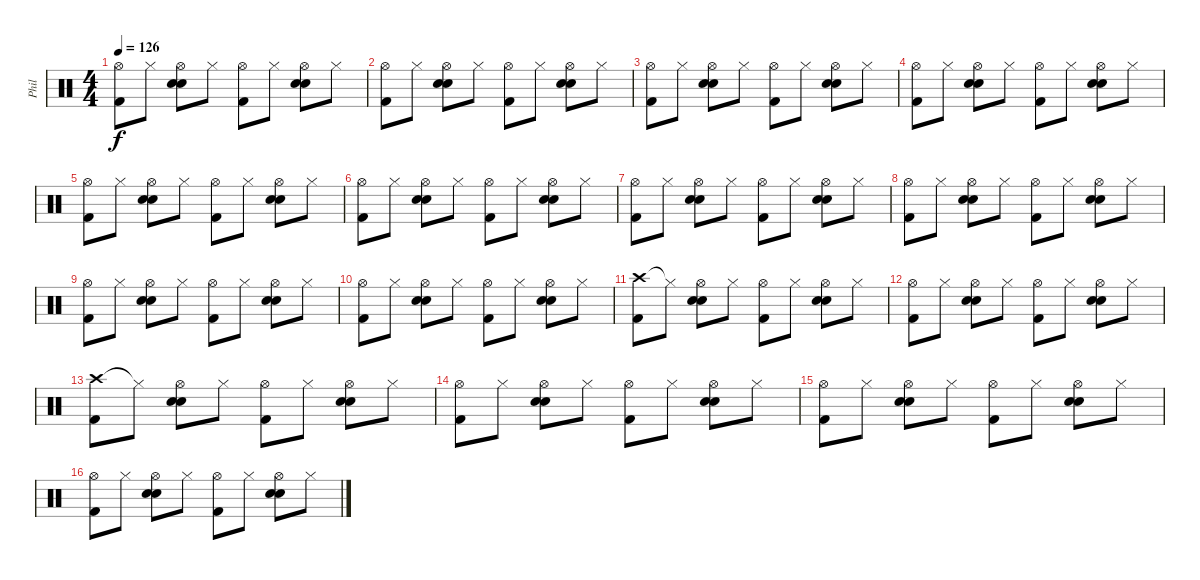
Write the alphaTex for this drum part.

\track ("Phil" "Phil") {instrument percussion}
\staff {score}
\articulation defaults
\ts (4 4)
\tempo 126
\clef neutral
\ks c
("Hi-Hat (open)" "Kick (hit) 2").8{dy f} "Hi-Hat (closed)".8 ("Hi-Hat (open)" "Snare (hit) 2" "Electric Snare (hit)").8 "Hi-Hat (closed)".8 ("Hi-Hat (open)" "Kick (hit) 2").8 "Hi-Hat (closed)".8 ("Hi-Hat (open)" "Snare (hit) 2" "Electric Snare (hit)").8 "Hi-Hat (closed)".8 |
("Hi-Hat (open)" "Kick (hit) 2").8 "Hi-Hat (closed)".8 ("Hi-Hat (open)" "Snare (hit) 2" "Electric Snare (hit)").8 "Hi-Hat (closed)".8 ("Hi-Hat (open)" "Kick (hit) 2").8 "Hi-Hat (closed)".8 ("Hi-Hat (open)" "Snare (hit) 2" "Electric Snare (hit)").8 "Hi-Hat (closed)".8 |
("Hi-Hat (open)" "Kick (hit) 2").8 "Hi-Hat (closed)".8 ("Hi-Hat (open)" "Snare (hit) 2" "Electric Snare (hit)").8 "Hi-Hat (closed)".8 ("Hi-Hat (open)" "Kick (hit) 2").8 "Hi-Hat (closed)".8 ("Hi-Hat (open)" "Snare (hit) 2" "Electric Snare (hit)").8 "Hi-Hat (closed)".8 |
("Hi-Hat (open)" "Kick (hit) 2").8 "Hi-Hat (closed)".8 ("Hi-Hat (open)" "Snare (hit) 2" "Electric Snare (hit)").8 "Hi-Hat (closed)".8 ("Hi-Hat (open)" "Kick (hit) 2").8 "Hi-Hat (closed)".8 ("Hi-Hat (open)" "Snare (hit) 2" "Electric Snare (hit)").8 "Hi-Hat (closed)".8 |
("Hi-Hat (open)" "Kick (hit) 2").8 "Hi-Hat (closed)".8 ("Hi-Hat (open)" "Snare (hit) 2" "Electric Snare (hit)").8 "Hi-Hat (closed)".8 ("Hi-Hat (open)" "Kick (hit) 2").8 "Hi-Hat (closed)".8 ("Hi-Hat (open)" "Snare (hit) 2" "Electric Snare (hit)").8 "Hi-Hat (closed)".8 |
("Hi-Hat (open)" "Kick (hit) 2").8 "Hi-Hat (closed)".8 ("Hi-Hat (open)" "Snare (hit) 2" "Electric Snare (hit)").8 "Hi-Hat (closed)".8 ("Hi-Hat (open)" "Kick (hit) 2").8 "Hi-Hat (closed)".8 ("Hi-Hat (open)" "Snare (hit) 2" "Electric Snare (hit)").8 "Hi-Hat (closed)".8 |
("Hi-Hat (open)" "Kick (hit) 2").8 "Hi-Hat (closed)".8 ("Hi-Hat (open)" "Snare (hit) 2" "Electric Snare (hit)").8 "Hi-Hat (closed)".8 ("Hi-Hat (open)" "Kick (hit) 2").8 "Hi-Hat (closed)".8 ("Hi-Hat (open)" "Snare (hit) 2" "Electric Snare (hit)").8 "Hi-Hat (closed)".8 |
("Hi-Hat (open)" "Kick (hit) 2").8 "Hi-Hat (closed)".8 ("Hi-Hat (open)" "Snare (hit) 2" "Electric Snare (hit)").8 "Hi-Hat (closed)".8 ("Hi-Hat (open)" "Kick (hit) 2").8 "Hi-Hat (closed)".8 ("Hi-Hat (open)" "Snare (hit) 2" "Electric Snare (hit)").8 "Hi-Hat (closed)".8 |
("Hi-Hat (open)" "Kick (hit) 2").8 "Hi-Hat (closed)".8 ("Hi-Hat (open)" "Snare (hit) 2" "Electric Snare (hit)").8 "Hi-Hat (closed)".8 ("Hi-Hat (open)" "Kick (hit) 2").8 "Hi-Hat (closed)".8 ("Hi-Hat (open)" "Snare (hit) 2" "Electric Snare (hit)").8 "Hi-Hat (closed)".8 |
("Hi-Hat (open)" "Kick (hit) 2").8 "Hi-Hat (closed)".8 ("Hi-Hat (open)" "Snare (hit) 2" "Electric Snare (hit)").8 "Hi-Hat (closed)".8 ("Hi-Hat (open)" "Kick (hit) 2").8 "Hi-Hat (closed)".8 ("Hi-Hat (open)" "Snare (hit) 2" "Electric Snare (hit)").8 "Hi-Hat (closed)".8 |
("Crash high (hit)" "Kick (hit) 2").8 "Hi-Hat (closed)"{t}.8 ("Hi-Hat (open)" "Snare (hit) 2" "Electric Snare (hit)").8 "Hi-Hat (closed)".8 ("Hi-Hat (open)" "Kick (hit) 2").8 "Hi-Hat (closed)".8 ("Hi-Hat (open)" "Snare (hit) 2" "Electric Snare (hit)").8 "Hi-Hat (closed)".8 |
("Hi-Hat (open)" "Kick (hit) 2").8 "Hi-Hat (closed)".8 ("Hi-Hat (open)" "Snare (hit) 2" "Electric Snare (hit)").8 "Hi-Hat (closed)".8 ("Hi-Hat (open)" "Kick (hit) 2").8 "Hi-Hat (closed)".8 ("Hi-Hat (open)" "Snare (hit) 2" "Electric Snare (hit)").8 "Hi-Hat (closed)".8 |
("Crash high (hit)" "Kick (hit) 2").8 "Hi-Hat (closed)"{t}.8 ("Hi-Hat (open)" "Snare (hit) 2" "Electric Snare (hit)").8 "Hi-Hat (closed)".8 ("Hi-Hat (open)" "Kick (hit) 2").8 "Hi-Hat (closed)".8 ("Hi-Hat (open)" "Snare (hit) 2" "Electric Snare (hit)").8 "Hi-Hat (closed)".8 |
("Hi-Hat (open)" "Kick (hit) 2").8 "Hi-Hat (closed)".8 ("Hi-Hat (open)" "Snare (hit) 2" "Electric Snare (hit)").8 "Hi-Hat (closed)".8 ("Hi-Hat (open)" "Kick (hit) 2").8 "Hi-Hat (closed)".8 ("Hi-Hat (open)" "Snare (hit) 2" "Electric Snare (hit)").8 "Hi-Hat (closed)".8 |
("Hi-Hat (open)" "Kick (hit) 2").8 "Hi-Hat (closed)".8 ("Hi-Hat (open)" "Snare (hit) 2" "Electric Snare (hit)").8 "Hi-Hat (closed)".8 ("Hi-Hat (open)" "Kick (hit) 2").8 "Hi-Hat (closed)".8 ("Hi-Hat (open)" "Snare (hit) 2" "Electric Snare (hit)").8 "Hi-Hat (closed)".8 |
("Hi-Hat (open)" "Kick (hit) 2").8 "Hi-Hat (closed)".8 ("Hi-Hat (open)" "Snare (hit) 2" "Electric Snare (hit)").8 "Hi-Hat (closed)".8 ("Hi-Hat (open)" "Kick (hit) 2").8 "Hi-Hat (closed)".8 ("Hi-Hat (open)" "Snare (hit) 2" "Electric Snare (hit)").8 "Hi-Hat (closed)".8
